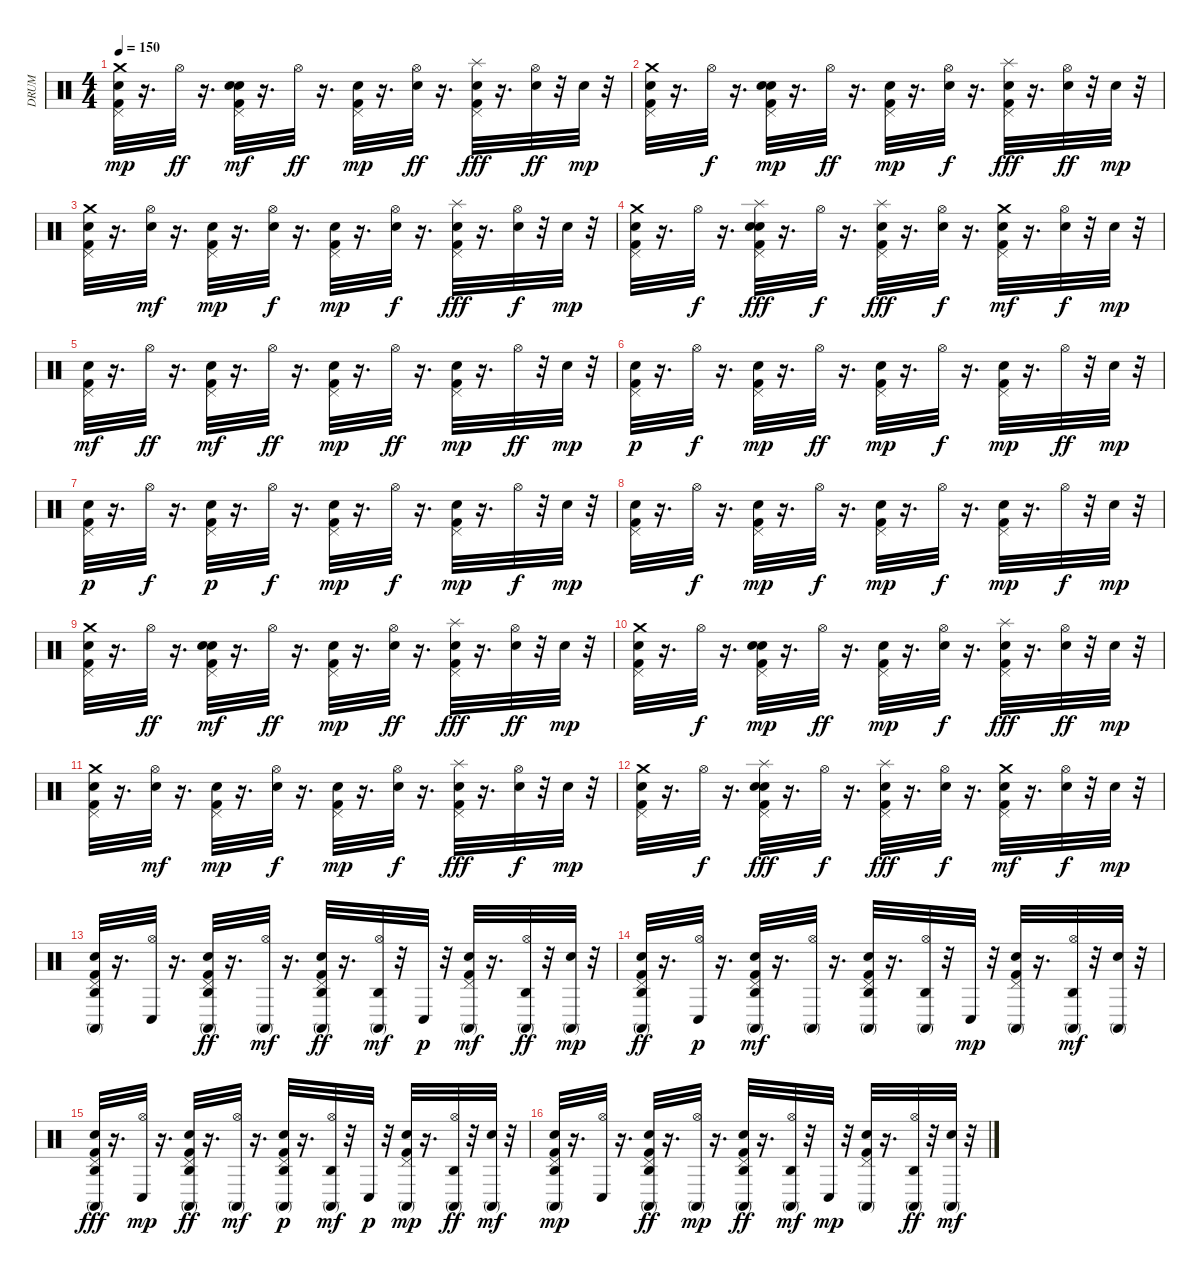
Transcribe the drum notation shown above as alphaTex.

\track ("DRUM" "DRUM") {instrument percussion}
\staff {score}
\articulation defaults
\ts (4 4)
\tempo 150
\clef neutral
\ks c
("Kick (hit) 2" "Hand Clap (hit)" "Pedal Hi-Hat (hit)" "Crash medium (hit)").32{dy mp} r.16{d} "Hi-Hat (open)".32{dy ff} r.16{d} ("Kick (hit) 2" "Hand Clap (hit)" "Electric Snare (hit)" "Pedal Hi-Hat (hit)").32{dy mf} r.16{d} "Hi-Hat (open)".32{dy ff} r.16{d} ("Kick (hit) 2" "Hand Clap (hit)" "Pedal Hi-Hat (hit)").32{dy mp} r.16{d} ("Electric Snare (hit)" "Hi-Hat (open)").32{dy ff} r.16{d} ("Kick (hit) 2" "Hand Clap (hit)" "Pedal Hi-Hat (hit)" "Splash (hit)").32{dy fff} r.16{d} ("Electric Snare (hit)" "Hi-Hat (open)").32{dy ff} r.32 "Hand Clap (hit)".32{dy mp} r.32 |
("Kick (hit) 2" "Hand Clap (hit)" "Pedal Hi-Hat (hit)" "Crash medium (hit)").32 r.16{d} "Hi-Hat (open)".32{dy f} r.16{d} ("Kick (hit) 2" "Hand Clap (hit)" "Electric Snare (hit)" "Pedal Hi-Hat (hit)").32{dy mp} r.16{d} "Hi-Hat (open)".32{dy ff} r.16{d} ("Kick (hit) 2" "Hand Clap (hit)" "Pedal Hi-Hat (hit)").32{dy mp} r.16{d} ("Electric Snare (hit)" "Hi-Hat (open)").32{dy f} r.16{d} ("Kick (hit) 2" "Hand Clap (hit)" "Pedal Hi-Hat (hit)" "Splash (hit)").32{dy fff} r.16{d} ("Electric Snare (hit)" "Hi-Hat (open)").32{dy ff} r.32 "Hand Clap (hit)".32{dy mp} r.32 |
("Kick (hit) 2" "Hand Clap (hit)" "Pedal Hi-Hat (hit)" "Crash medium (hit)").32 r.16{d} ("Electric Snare (hit)" "Hi-Hat (open)").32{dy mf} r.16{d} ("Kick (hit) 2" "Hand Clap (hit)" "Pedal Hi-Hat (hit)").32{dy mp} r.16{d} ("Electric Snare (hit)" "Hi-Hat (open)").32{dy f} r.16{d} ("Kick (hit) 2" "Hand Clap (hit)" "Pedal Hi-Hat (hit)").32{dy mp} r.16{d} ("Electric Snare (hit)" "Hi-Hat (open)").32{dy f} r.16{d} ("Kick (hit) 2" "Hand Clap (hit)" "Pedal Hi-Hat (hit)" "Splash (hit)").32{dy fff} r.16{d} ("Electric Snare (hit)" "Hi-Hat (open)").32{dy f} r.32 "Hand Clap (hit)".32{dy mp} r.32 |
("Kick (hit) 2" "Hand Clap (hit)" "Pedal Hi-Hat (hit)" "Crash medium (hit)").32 r.16{d} "Hi-Hat (open)".32{dy f} r.16{d} ("Kick (hit) 2" "Hand Clap (hit)" "Electric Snare (hit)" "Pedal Hi-Hat (hit)" "Splash (hit)").32{dy fff} r.16{d} "Hi-Hat (open)".32{dy f} r.16{d} ("Kick (hit) 2" "Hand Clap (hit)" "Pedal Hi-Hat (hit)" "Splash (hit)").32{dy fff} r.16{d} ("Electric Snare (hit)" "Hi-Hat (open)").32{dy f} r.16{d} ("Kick (hit) 2" "Hand Clap (hit)" "Pedal Hi-Hat (hit)" "Crash medium (hit)").32{dy mf} r.16{d} ("Electric Snare (hit)" "Hi-Hat (open)").32{dy f} r.32 "Hand Clap (hit)".32{dy mp} r.32 |
("Kick (hit) 2" "Hand Clap (hit)" "Pedal Hi-Hat (hit)").32{dy mf} r.16{d} "Hi-Hat (open)".32{dy ff} r.16{d} ("Kick (hit) 2" "Hand Clap (hit)" "Pedal Hi-Hat (hit)").32{dy mf} r.16{d} "Hi-Hat (open)".32{dy ff} r.16{d} ("Kick (hit) 2" "Hand Clap (hit)" "Pedal Hi-Hat (hit)").32{dy mp} r.16{d} "Hi-Hat (open)".32{dy ff} r.16{d} ("Kick (hit) 2" "Hand Clap (hit)" "Pedal Hi-Hat (hit)").32{dy mp} r.16{d} "Hi-Hat (open)".32{dy ff} r.32 "Hand Clap (hit)".32{dy mp} r.32 |
("Kick (hit) 2" "Hand Clap (hit)" "Pedal Hi-Hat (hit)").32{dy p} r.16{d} "Hi-Hat (open)".32{dy f} r.16{d} ("Kick (hit) 2" "Hand Clap (hit)" "Pedal Hi-Hat (hit)").32{dy mp} r.16{d} "Hi-Hat (open)".32{dy ff} r.16{d} ("Kick (hit) 2" "Hand Clap (hit)" "Pedal Hi-Hat (hit)").32{dy mp} r.16{d} "Hi-Hat (open)".32{dy f} r.16{d} ("Kick (hit) 2" "Hand Clap (hit)" "Pedal Hi-Hat (hit)").32{dy mp} r.16{d} "Hi-Hat (open)".32{dy ff} r.32 "Hand Clap (hit)".32{dy mp} r.32 |
("Kick (hit) 2" "Hand Clap (hit)" "Pedal Hi-Hat (hit)").32{dy p} r.16{d} "Hi-Hat (open)".32{dy f} r.16{d} ("Kick (hit) 2" "Hand Clap (hit)" "Pedal Hi-Hat (hit)").32{dy p} r.16{d} "Hi-Hat (open)".32{dy f} r.16{d} ("Kick (hit) 2" "Hand Clap (hit)" "Pedal Hi-Hat (hit)").32{dy mp} r.16{d} "Hi-Hat (open)".32{dy f} r.16{d} ("Kick (hit) 2" "Hand Clap (hit)" "Pedal Hi-Hat (hit)").32{dy mp} r.16{d} "Hi-Hat (open)".32{dy f} r.32 "Hand Clap (hit)".32{dy mp} r.32 |
("Kick (hit) 2" "Hand Clap (hit)" "Pedal Hi-Hat (hit)").32 r.16{d} "Hi-Hat (open)".32{dy f} r.16{d} ("Kick (hit) 2" "Hand Clap (hit)" "Pedal Hi-Hat (hit)").32{dy mp} r.16{d} "Hi-Hat (open)".32{dy f} r.16{d} ("Kick (hit) 2" "Hand Clap (hit)" "Pedal Hi-Hat (hit)").32{dy mp} r.16{d} "Hi-Hat (open)".32{dy f} r.16{d} ("Kick (hit) 2" "Hand Clap (hit)" "Pedal Hi-Hat (hit)").32{dy mp} r.16{d} "Hi-Hat (open)".32{dy f} r.32 "Hand Clap (hit)".32{dy mp} r.32 |
("Kick (hit) 2" "Hand Clap (hit)" "Pedal Hi-Hat (hit)" "Crash medium (hit)").32 r.16{d} "Hi-Hat (open)".32{dy ff} r.16{d} ("Kick (hit) 2" "Hand Clap (hit)" "Electric Snare (hit)" "Pedal Hi-Hat (hit)").32{dy mf} r.16{d} "Hi-Hat (open)".32{dy ff} r.16{d} ("Kick (hit) 2" "Hand Clap (hit)" "Pedal Hi-Hat (hit)").32{dy mp} r.16{d} ("Electric Snare (hit)" "Hi-Hat (open)").32{dy ff} r.16{d} ("Kick (hit) 2" "Hand Clap (hit)" "Pedal Hi-Hat (hit)" "Splash (hit)").32{dy fff} r.16{d} ("Electric Snare (hit)" "Hi-Hat (open)").32{dy ff} r.32 "Hand Clap (hit)".32{dy mp} r.32 |
("Kick (hit) 2" "Hand Clap (hit)" "Pedal Hi-Hat (hit)" "Crash medium (hit)").32 r.16{d} "Hi-Hat (open)".32{dy f} r.16{d} ("Kick (hit) 2" "Hand Clap (hit)" "Electric Snare (hit)" "Pedal Hi-Hat (hit)").32{dy mp} r.16{d} "Hi-Hat (open)".32{dy ff} r.16{d} ("Kick (hit) 2" "Hand Clap (hit)" "Pedal Hi-Hat (hit)").32{dy mp} r.16{d} ("Electric Snare (hit)" "Hi-Hat (open)").32{dy f} r.16{d} ("Kick (hit) 2" "Hand Clap (hit)" "Pedal Hi-Hat (hit)" "Splash (hit)").32{dy fff} r.16{d} ("Electric Snare (hit)" "Hi-Hat (open)").32{dy ff} r.32 "Hand Clap (hit)".32{dy mp} r.32 |
("Kick (hit) 2" "Hand Clap (hit)" "Pedal Hi-Hat (hit)" "Crash medium (hit)").32 r.16{d} ("Electric Snare (hit)" "Hi-Hat (open)").32{dy mf} r.16{d} ("Kick (hit) 2" "Hand Clap (hit)" "Pedal Hi-Hat (hit)").32{dy mp} r.16{d} ("Electric Snare (hit)" "Hi-Hat (open)").32{dy f} r.16{d} ("Kick (hit) 2" "Hand Clap (hit)" "Pedal Hi-Hat (hit)").32{dy mp} r.16{d} ("Electric Snare (hit)" "Hi-Hat (open)").32{dy f} r.16{d} ("Kick (hit) 2" "Hand Clap (hit)" "Pedal Hi-Hat (hit)" "Splash (hit)").32{dy fff} r.16{d} ("Electric Snare (hit)" "Hi-Hat (open)").32{dy f} r.32 "Hand Clap (hit)".32{dy mp} r.32 |
("Kick (hit) 2" "Hand Clap (hit)" "Pedal Hi-Hat (hit)" "Crash medium (hit)").32 r.16{d} "Hi-Hat (open)".32{dy f} r.16{d} ("Kick (hit) 2" "Hand Clap (hit)" "Electric Snare (hit)" "Pedal Hi-Hat (hit)" "Splash (hit)").32{dy fff} r.16{d} "Hi-Hat (open)".32{dy f} r.16{d} ("Kick (hit) 2" "Hand Clap (hit)" "Pedal Hi-Hat (hit)" "Splash (hit)").32{dy fff} r.16{d} ("Electric Snare (hit)" "Hi-Hat (open)").32{dy f} r.16{d} ("Kick (hit) 2" "Hand Clap (hit)" "Pedal Hi-Hat (hit)" "Crash medium (hit)").32{dy mf} r.16{d} ("Electric Snare (hit)" "Hi-Hat (open)").32{dy f} r.32 "Hand Clap (hit)".32{dy mp} r.32 |
("Kick (hit) 2" "Hand Clap (hit)" "Pedal Hi-Hat (hit)" "Conga high (mute)" "Agogo high (hit)").32 r.16{d} ("Hi-Hat (open)" "Conga low (hit)").32 r.16{d} ("Kick (hit) 2" "Hand Clap (hit)" "Pedal Hi-Hat (hit)" "Conga high (mute)" "Agogo high (hit)").32{dy ff} r.16{d} ("Hi-Hat (open)" "Conga high (mute)").32{dy mf} r.16{d} ("Kick (hit) 2" "Hand Clap (hit)" "Pedal Hi-Hat (hit)" "Conga high (mute)" "Agogo high (hit)").32{dy ff} r.16{d} ("Hi-Hat (open)" "Conga high (mute)" "Agogo high (hit)").32{dy mf} r.32 "Conga low (hit)".32{dy p} r.32 ("Kick (hit) 2" "Hand Clap (hit)" "Pedal Hi-Hat (hit)" "Conga high (mute)").32{dy mf} r.16{d} ("Hi-Hat (open)" "Conga high (mute)" "Agogo high (hit)").32{dy ff} r.32 ("Hand Clap (hit)" "Conga high (mute)").32{dy mp} r.32 |
("Kick (hit) 2" "Hand Clap (hit)" "Pedal Hi-Hat (hit)" "Conga high (mute)" "Agogo high (hit)").32{dy ff} r.16{d} ("Hi-Hat (open)" "Conga low (hit)").32{dy p} r.16{d} ("Kick (hit) 2" "Hand Clap (hit)" "Pedal Hi-Hat (hit)" "Conga high (mute)" "Agogo high (hit)").32{dy mf} r.16{d} ("Hi-Hat (open)" "Conga high (mute)").32 r.16{d} ("Kick (hit) 2" "Hand Clap (hit)" "Pedal Hi-Hat (hit)" "Conga high (mute)" "Agogo high (hit)").32 r.16{d} ("Hi-Hat (open)" "Conga high (mute)" "Agogo high (hit)").32 r.32 "Conga low (hit)".32{dy mp} r.32 ("Kick (hit) 2" "Hand Clap (hit)" "Pedal Hi-Hat (hit)" "Conga high (mute)").32 r.16{d} ("Hi-Hat (open)" "Conga high (mute)" "Agogo high (hit)").32{dy mf} r.32 ("Hand Clap (hit)" "Conga high (mute)").32 r.32 |
("Kick (hit) 2" "Hand Clap (hit)" "Pedal Hi-Hat (hit)" "Conga high (mute)" "Agogo high (hit)").32{dy fff} r.16{d} ("Hi-Hat (open)" "Conga low (hit)").32{dy mp} r.16{d} ("Kick (hit) 2" "Hand Clap (hit)" "Pedal Hi-Hat (hit)" "Conga high (mute)" "Agogo high (hit)").32{dy ff} r.16{d} ("Hi-Hat (open)" "Conga high (mute)").32{dy mf} r.16{d} ("Kick (hit) 2" "Hand Clap (hit)" "Pedal Hi-Hat (hit)" "Conga high (mute)" "Agogo high (hit)").32{dy p} r.16{d} ("Hi-Hat (open)" "Conga high (mute)" "Agogo high (hit)").32{dy mf} r.32 "Conga low (hit)".32{dy p} r.32 ("Kick (hit) 2" "Hand Clap (hit)" "Pedal Hi-Hat (hit)" "Conga high (mute)").32{dy mp} r.16{d} ("Hi-Hat (open)" "Conga high (mute)" "Agogo high (hit)").32{dy ff} r.32 ("Hand Clap (hit)" "Conga high (mute)").32{dy mf} r.32 |
("Kick (hit) 2" "Hand Clap (hit)" "Pedal Hi-Hat (hit)" "Conga high (mute)" "Agogo high (hit)").32{dy mp} r.16{d} ("Hi-Hat (open)" "Conga low (hit)").32 r.16{d} ("Kick (hit) 2" "Hand Clap (hit)" "Pedal Hi-Hat (hit)" "Conga high (mute)" "Agogo high (hit)").32{dy ff} r.16{d} ("Hi-Hat (open)" "Conga high (mute)").32{dy mp} r.16{d} ("Kick (hit) 2" "Hand Clap (hit)" "Pedal Hi-Hat (hit)" "Conga high (mute)" "Agogo high (hit)").32{dy ff} r.16{d} ("Hi-Hat (open)" "Conga high (mute)" "Agogo high (hit)").32{dy mf} r.32 "Conga low (hit)".32{dy mp} r.32 ("Kick (hit) 2" "Hand Clap (hit)" "Pedal Hi-Hat (hit)" "Conga high (mute)").32 r.16{d} ("Hi-Hat (open)" "Conga high (mute)" "Agogo high (hit)").32{dy ff} r.32 ("Hand Clap (hit)" "Conga high (mute)").32{dy mf} r.32
